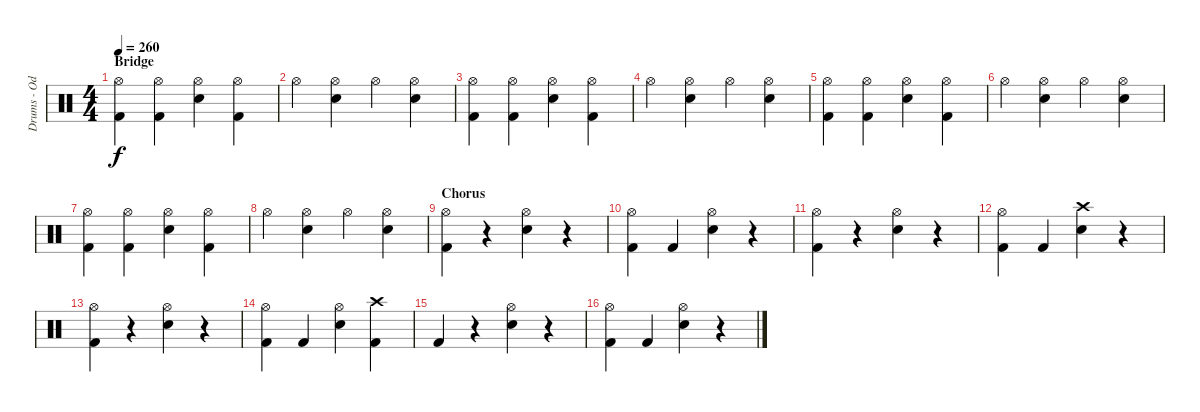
\track ("Drums - Oded Perach" "Drums - Od") {instrument percussion}
\staff {score}
\articulation defaults
\ts (4 4)
\section ("" "Bridge")
\tempo 260
\clef neutral
\ks c
("Hi-Hat (open)" "Kick (hit) 2").4{dy f} ("Hi-Hat (open)" "Kick (hit) 2").4 ("Hi-Hat (open)" "Snare (hit) 2").4 ("Hi-Hat (open)" "Kick (hit) 2").4 |
"Hi-Hat (open)".4 ("Hi-Hat (open)" "Snare (hit) 2").4 "Hi-Hat (open)".4 ("Hi-Hat (open)" "Snare (hit) 2").4 |
("Hi-Hat (open)" "Kick (hit) 2").4 ("Hi-Hat (open)" "Kick (hit) 2").4 ("Hi-Hat (open)" "Snare (hit) 2").4 ("Hi-Hat (open)" "Kick (hit) 2").4 |
"Hi-Hat (open)".4 ("Hi-Hat (open)" "Snare (hit) 2").4 "Hi-Hat (open)".4 ("Hi-Hat (open)" "Snare (hit) 2").4 |
("Hi-Hat (open)" "Kick (hit) 2").4 ("Hi-Hat (open)" "Kick (hit) 2").4 ("Hi-Hat (open)" "Snare (hit) 2").4 ("Hi-Hat (open)" "Kick (hit) 2").4 |
"Hi-Hat (open)".4 ("Hi-Hat (open)" "Snare (hit) 2").4 "Hi-Hat (open)".4 ("Hi-Hat (open)" "Snare (hit) 2").4 |
("Hi-Hat (open)" "Kick (hit) 2").4 ("Hi-Hat (open)" "Kick (hit) 2").4 ("Hi-Hat (open)" "Snare (hit) 2").4 ("Hi-Hat (open)" "Kick (hit) 2").4 |
"Hi-Hat (open)".4 ("Hi-Hat (open)" "Snare (hit) 2").4 "Hi-Hat (open)".4 ("Hi-Hat (open)" "Snare (hit) 2").4 |
\section ("" "Chorus")
("Hi-Hat (open)" "Kick (hit) 2").4 r.4 ("Hi-Hat (open)" "Snare (hit) 2").4 r.4 |
\section ("" "")
("Hi-Hat (open)" "Kick (hit) 2").4 "Kick (hit) 2".4 ("Hi-Hat (open)" "Snare (hit) 2").4 r.4 |
("Hi-Hat (open)" "Kick (hit) 2").4 r.4 ("Hi-Hat (open)" "Snare (hit) 2").4 r.4 |
("Hi-Hat (open)" "Kick (hit) 2").4 "Kick (hit) 2".4 ("Crash high (hit)" "Snare (hit) 2").4 r.4 |
("Hi-Hat (open)" "Kick (hit) 2").4 r.4 ("Hi-Hat (open)" "Snare (hit) 2").4 r.4 |
("Hi-Hat (open)" "Kick (hit) 2").4 "Kick (hit) 2".4 ("Hi-Hat (open)" "Snare (hit) 2").4 ("Crash high (hit)" "Kick (hit) 2").4 |
"Kick (hit) 2".4 r.4 ("Hi-Hat (open)" "Snare (hit) 2").4 r.4 |
("Hi-Hat (open)" "Kick (hit) 2").4 "Kick (hit) 2".4 ("Hi-Hat (open)" "Snare (hit) 2").4 r.4
